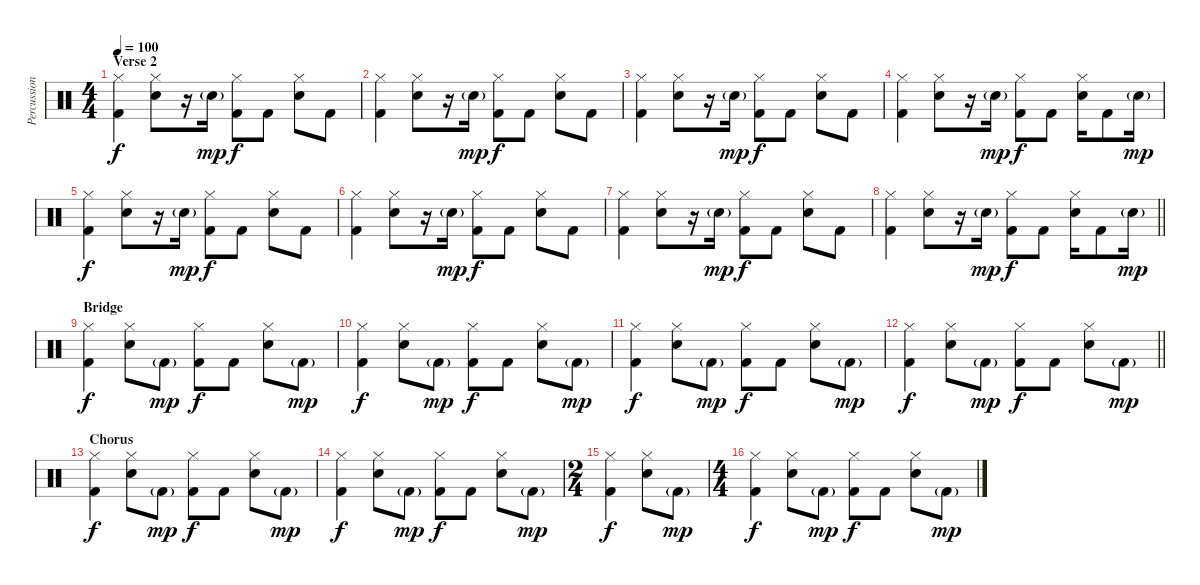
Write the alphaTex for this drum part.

\track ("Percussion" "Percussion") {instrument percussion}
\staff {score}
\articulation defaults
\ts (4 4)
\section ("" "Verse 2")
\tempo 100
\clef neutral
\ks c
("Hi-Hat (closed)" "Kick (hit) 2").4{dy f} ("Hi-Hat (closed)" "Snare (hit) 2").8 r.16 "Snare (hit) 2"{g}.16{dy mp} ("Hi-Hat (closed)" "Kick (hit) 2").8{dy f} "Kick (hit) 2".8 ("Hi-Hat (closed)" "Snare (hit) 2").8 "Kick (hit) 2".8 |
("Hi-Hat (closed)" "Kick (hit) 2").4 ("Hi-Hat (closed)" "Snare (hit) 2").8 r.16 "Snare (hit) 2"{g}.16{dy mp} ("Hi-Hat (closed)" "Kick (hit) 2").8{dy f} "Kick (hit) 2".8 ("Hi-Hat (closed)" "Snare (hit) 2").8 "Kick (hit) 2".8 |
("Hi-Hat (closed)" "Kick (hit) 2").4 ("Hi-Hat (closed)" "Snare (hit) 2").8 r.16 "Snare (hit) 2"{g}.16{dy mp} ("Hi-Hat (closed)" "Kick (hit) 2").8{dy f} "Kick (hit) 2".8 ("Hi-Hat (closed)" "Snare (hit) 2").8 "Kick (hit) 2".8 |
("Hi-Hat (closed)" "Kick (hit) 2").4 ("Hi-Hat (closed)" "Snare (hit) 2").8 r.16 "Snare (hit) 2"{g}.16{dy mp} ("Hi-Hat (closed)" "Kick (hit) 2").8{dy f} "Kick (hit) 2".8 ("Hi-Hat (closed)" "Snare (hit) 2").16 "Kick (hit) 2".8 "Snare (hit) 2"{g}.16{dy mp} |
("Hi-Hat (closed)" "Kick (hit) 2").4{dy f} ("Hi-Hat (closed)" "Snare (hit) 2").8 r.16 "Snare (hit) 2"{g}.16{dy mp} ("Hi-Hat (closed)" "Kick (hit) 2").8{dy f} "Kick (hit) 2".8 ("Hi-Hat (closed)" "Snare (hit) 2").8 "Kick (hit) 2".8 |
("Hi-Hat (closed)" "Kick (hit) 2").4 ("Hi-Hat (closed)" "Snare (hit) 2").8 r.16 "Snare (hit) 2"{g}.16{dy mp} ("Hi-Hat (closed)" "Kick (hit) 2").8{dy f} "Kick (hit) 2".8 ("Hi-Hat (closed)" "Snare (hit) 2").8 "Kick (hit) 2".8 |
("Hi-Hat (closed)" "Kick (hit) 2").4 ("Hi-Hat (closed)" "Snare (hit) 2").8 r.16 "Snare (hit) 2"{g}.16{dy mp} ("Hi-Hat (closed)" "Kick (hit) 2").8{dy f} "Kick (hit) 2".8 ("Hi-Hat (closed)" "Snare (hit) 2").8 "Kick (hit) 2".8 |
\barLineRight lightlight
("Hi-Hat (closed)" "Kick (hit) 2").4 ("Hi-Hat (closed)" "Snare (hit) 2").8 r.16 "Snare (hit) 2"{g}.16{dy mp} ("Hi-Hat (closed)" "Kick (hit) 2").8{dy f} "Kick (hit) 2".8 ("Hi-Hat (closed)" "Snare (hit) 2").16 "Kick (hit) 2".8 "Snare (hit) 2"{g}.16{dy mp} |
\section ("" "Bridge")
("Hi-Hat (closed)" "Kick (hit) 2").4{dy f} ("Hi-Hat (closed)" "Snare (hit) 2").8 "Kick (hit) 2"{g}.8{dy mp} ("Hi-Hat (closed)" "Kick (hit) 2").8{dy f} "Kick (hit) 2".8 ("Hi-Hat (closed)" "Snare (hit) 2").8 "Kick (hit) 2"{g}.8{dy mp} |
("Hi-Hat (closed)" "Kick (hit) 2").4{dy f} ("Hi-Hat (closed)" "Snare (hit) 2").8 "Kick (hit) 2"{g}.8{dy mp} ("Hi-Hat (closed)" "Kick (hit) 2").8{dy f} "Kick (hit) 2".8 ("Hi-Hat (closed)" "Snare (hit) 2").8 "Kick (hit) 2"{g}.8{dy mp} |
("Hi-Hat (closed)" "Kick (hit) 2").4{dy f} ("Hi-Hat (closed)" "Snare (hit) 2").8 "Kick (hit) 2"{g}.8{dy mp} ("Hi-Hat (closed)" "Kick (hit) 2").8{dy f} "Kick (hit) 2".8 ("Hi-Hat (closed)" "Snare (hit) 2").8 "Kick (hit) 2"{g}.8{dy mp} |
\barLineRight lightlight
("Hi-Hat (closed)" "Kick (hit) 2").4{dy f} ("Hi-Hat (closed)" "Snare (hit) 2").8 "Kick (hit) 2"{g}.8{dy mp} ("Hi-Hat (closed)" "Kick (hit) 2").8{dy f} "Kick (hit) 2".8 ("Hi-Hat (closed)" "Snare (hit) 2").8 "Kick (hit) 2"{g}.8{dy mp} |
\section ("" "Chorus")
("Hi-Hat (closed)" "Kick (hit) 2").4{dy f} ("Hi-Hat (closed)" "Snare (hit) 2").8 "Kick (hit) 2"{g}.8{dy mp} ("Hi-Hat (closed)" "Kick (hit) 2").8{dy f} "Kick (hit) 2".8 ("Hi-Hat (closed)" "Snare (hit) 2").8 "Kick (hit) 2"{g}.8{dy mp} |
("Hi-Hat (closed)" "Kick (hit) 2").4{dy f} ("Hi-Hat (closed)" "Snare (hit) 2").8 "Kick (hit) 2"{g}.8{dy mp} ("Hi-Hat (closed)" "Kick (hit) 2").8{dy f} "Kick (hit) 2".8 ("Hi-Hat (closed)" "Snare (hit) 2").8 "Kick (hit) 2"{g}.8{dy mp} |
\ts (2 4)
("Hi-Hat (closed)" "Kick (hit) 2").4{dy f} ("Hi-Hat (closed)" "Snare (hit) 2").8 "Kick (hit) 2"{g}.8{dy mp} |
\ts (4 4)
("Hi-Hat (closed)" "Kick (hit) 2").4{dy f} ("Hi-Hat (closed)" "Snare (hit) 2").8 "Kick (hit) 2"{g}.8{dy mp} ("Hi-Hat (closed)" "Kick (hit) 2").8{dy f} "Kick (hit) 2".8 ("Hi-Hat (closed)" "Snare (hit) 2").8 "Kick (hit) 2"{g}.8{dy mp}
